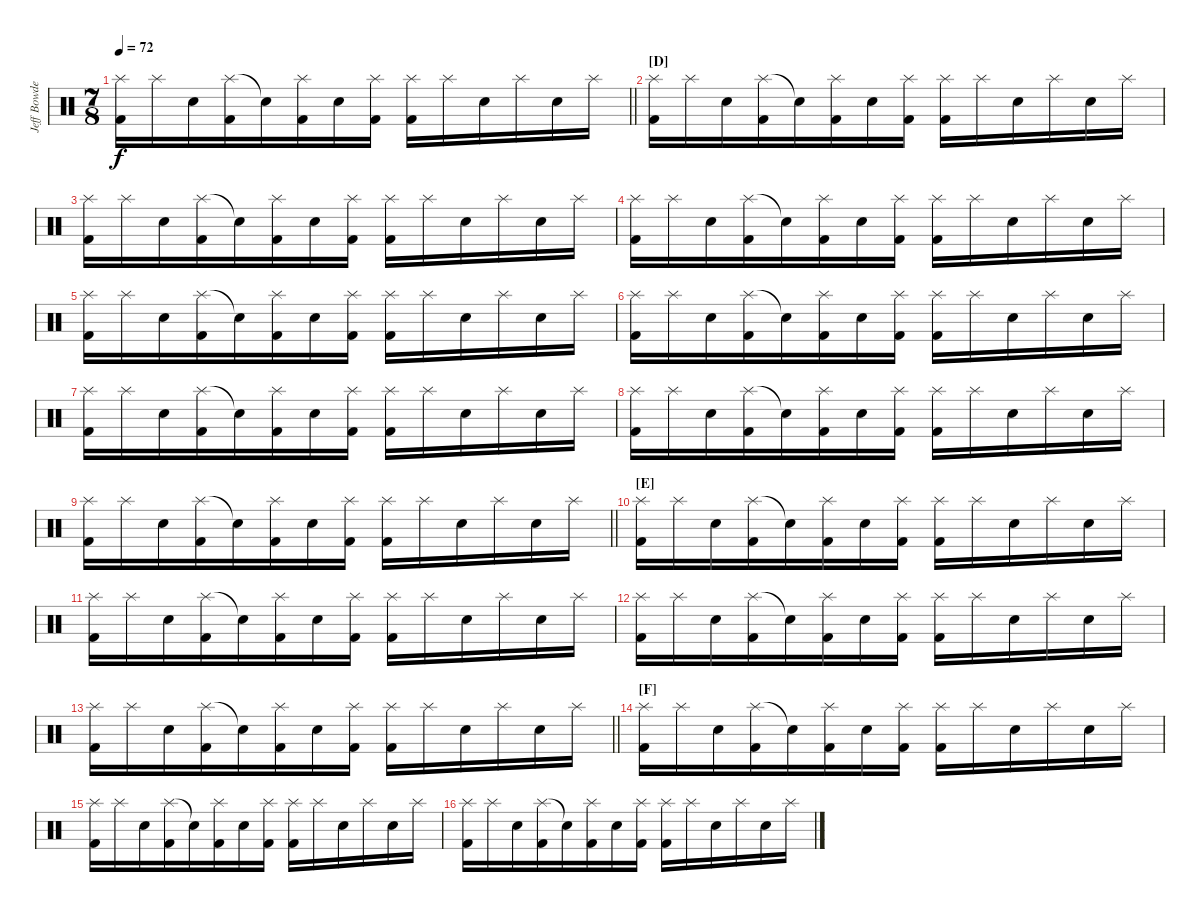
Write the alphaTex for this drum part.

\track ("Jeff Bowders" "Jeff Bowde") {instrument percussion}
\staff {score}
\articulation defaults
\ts (7 8)
\tempo 72
\clef neutral
\barLineRight lightlight
\ks aminor
("Splash (hit)" "Kick (hit) 2").16{dy f} "Splash (hit)".16 "Electric Snare (hit)".16 ("Splash (hit)" "Kick (hit) 2").16 "Snare (hit)"{t}.16 ("Splash (hit)" "Kick (hit) 2").16 "Electric Snare (hit)".16 ("Splash (hit)" "Kick (hit) 2").16 ("Splash (hit)" "Kick (hit) 2").16 "Splash (hit)".16 "Electric Snare (hit)".16 "Splash (hit)".16 "Electric Snare (hit)".16 "Splash (hit)".16 |
\section ("" "[D]")
("Splash (hit)" "Kick (hit) 2").16 "Splash (hit)".16 "Electric Snare (hit)".16 ("Splash (hit)" "Kick (hit) 2").16 "Snare (hit)"{t}.16 ("Splash (hit)" "Kick (hit) 2").16 "Electric Snare (hit)".16 ("Splash (hit)" "Kick (hit) 2").16 ("Splash (hit)" "Kick (hit) 2").16 "Splash (hit)".16 "Electric Snare (hit)".16 "Splash (hit)".16 "Electric Snare (hit)".16 "Splash (hit)".16 |
("Splash (hit)" "Kick (hit) 2").16 "Splash (hit)".16 "Electric Snare (hit)".16 ("Splash (hit)" "Kick (hit) 2").16 "Snare (hit)"{t}.16 ("Splash (hit)" "Kick (hit) 2").16 "Electric Snare (hit)".16 ("Splash (hit)" "Kick (hit) 2").16 ("Splash (hit)" "Kick (hit) 2").16 "Splash (hit)".16 "Electric Snare (hit)".16 "Splash (hit)".16 "Electric Snare (hit)".16 "Splash (hit)".16 |
("Splash (hit)" "Kick (hit) 2").16 "Splash (hit)".16 "Electric Snare (hit)".16 ("Splash (hit)" "Kick (hit) 2").16 "Snare (hit)"{t}.16 ("Splash (hit)" "Kick (hit) 2").16 "Electric Snare (hit)".16 ("Splash (hit)" "Kick (hit) 2").16 ("Splash (hit)" "Kick (hit) 2").16 "Splash (hit)".16 "Electric Snare (hit)".16 "Splash (hit)".16 "Electric Snare (hit)".16 "Splash (hit)".16 |
("Splash (hit)" "Kick (hit) 2").16 "Splash (hit)".16 "Electric Snare (hit)".16 ("Splash (hit)" "Kick (hit) 2").16 "Snare (hit)"{t}.16 ("Splash (hit)" "Kick (hit) 2").16 "Electric Snare (hit)".16 ("Splash (hit)" "Kick (hit) 2").16 ("Splash (hit)" "Kick (hit) 2").16 "Splash (hit)".16 "Electric Snare (hit)".16 "Splash (hit)".16 "Electric Snare (hit)".16 "Splash (hit)".16 |
("Splash (hit)" "Kick (hit) 2").16 "Splash (hit)".16 "Electric Snare (hit)".16 ("Splash (hit)" "Kick (hit) 2").16 "Snare (hit)"{t}.16 ("Splash (hit)" "Kick (hit) 2").16 "Electric Snare (hit)".16 ("Splash (hit)" "Kick (hit) 2").16 ("Splash (hit)" "Kick (hit) 2").16 "Splash (hit)".16 "Electric Snare (hit)".16 "Splash (hit)".16 "Electric Snare (hit)".16 "Splash (hit)".16 |
("Splash (hit)" "Kick (hit) 2").16 "Splash (hit)".16 "Electric Snare (hit)".16 ("Splash (hit)" "Kick (hit) 2").16 "Snare (hit)"{t}.16 ("Splash (hit)" "Kick (hit) 2").16 "Electric Snare (hit)".16 ("Splash (hit)" "Kick (hit) 2").16 ("Splash (hit)" "Kick (hit) 2").16 "Splash (hit)".16 "Electric Snare (hit)".16 "Splash (hit)".16 "Electric Snare (hit)".16 "Splash (hit)".16 |
("Splash (hit)" "Kick (hit) 2").16 "Splash (hit)".16 "Electric Snare (hit)".16 ("Splash (hit)" "Kick (hit) 2").16 "Snare (hit)"{t}.16 ("Splash (hit)" "Kick (hit) 2").16 "Electric Snare (hit)".16 ("Splash (hit)" "Kick (hit) 2").16 ("Splash (hit)" "Kick (hit) 2").16 "Splash (hit)".16 "Electric Snare (hit)".16 "Splash (hit)".16 "Electric Snare (hit)".16 "Splash (hit)".16 |
\barLineRight lightlight
("Splash (hit)" "Kick (hit) 2").16 "Splash (hit)".16 "Electric Snare (hit)".16 ("Splash (hit)" "Kick (hit) 2").16 "Snare (hit)"{t}.16 ("Splash (hit)" "Kick (hit) 2").16 "Electric Snare (hit)".16 ("Splash (hit)" "Kick (hit) 2").16 ("Splash (hit)" "Kick (hit) 2").16 "Splash (hit)".16 "Electric Snare (hit)".16 "Splash (hit)".16 "Electric Snare (hit)".16 "Splash (hit)".16 |
\section ("" "[E]")
("Splash (hit)" "Kick (hit) 2").16 "Splash (hit)".16 "Electric Snare (hit)".16 ("Splash (hit)" "Kick (hit) 2").16 "Snare (hit)"{t}.16 ("Splash (hit)" "Kick (hit) 2").16 "Electric Snare (hit)".16 ("Splash (hit)" "Kick (hit) 2").16 ("Splash (hit)" "Kick (hit) 2").16 "Splash (hit)".16 "Electric Snare (hit)".16 "Splash (hit)".16 "Electric Snare (hit)".16 "Splash (hit)".16 |
("Splash (hit)" "Kick (hit) 2").16 "Splash (hit)".16 "Electric Snare (hit)".16 ("Splash (hit)" "Kick (hit) 2").16 "Snare (hit)"{t}.16 ("Splash (hit)" "Kick (hit) 2").16 "Electric Snare (hit)".16 ("Splash (hit)" "Kick (hit) 2").16 ("Splash (hit)" "Kick (hit) 2").16 "Splash (hit)".16 "Electric Snare (hit)".16 "Splash (hit)".16 "Electric Snare (hit)".16 "Splash (hit)".16 |
("Splash (hit)" "Kick (hit) 2").16 "Splash (hit)".16 "Electric Snare (hit)".16 ("Splash (hit)" "Kick (hit) 2").16 "Snare (hit)"{t}.16 ("Splash (hit)" "Kick (hit) 2").16 "Electric Snare (hit)".16 ("Splash (hit)" "Kick (hit) 2").16 ("Splash (hit)" "Kick (hit) 2").16 "Splash (hit)".16 "Electric Snare (hit)".16 "Splash (hit)".16 "Electric Snare (hit)".16 "Splash (hit)".16 |
\barLineRight lightlight
("Splash (hit)" "Kick (hit) 2").16 "Splash (hit)".16 "Electric Snare (hit)".16 ("Splash (hit)" "Kick (hit) 2").16 "Snare (hit)"{t}.16 ("Splash (hit)" "Kick (hit) 2").16 "Electric Snare (hit)".16 ("Splash (hit)" "Kick (hit) 2").16 ("Splash (hit)" "Kick (hit) 2").16 "Splash (hit)".16 "Electric Snare (hit)".16 "Splash (hit)".16 "Electric Snare (hit)".16 "Splash (hit)".16 |
\section ("" "[F]")
("Splash (hit)" "Kick (hit) 2").16 "Splash (hit)".16 "Electric Snare (hit)".16 ("Splash (hit)" "Kick (hit) 2").16 "Snare (hit)"{t}.16 ("Splash (hit)" "Kick (hit) 2").16 "Electric Snare (hit)".16 ("Splash (hit)" "Kick (hit) 2").16 ("Splash (hit)" "Kick (hit) 2").16 "Splash (hit)".16 "Electric Snare (hit)".16 "Splash (hit)".16 "Electric Snare (hit)".16 "Splash (hit)".16 |
("Splash (hit)" "Kick (hit) 2").16 "Splash (hit)".16 "Electric Snare (hit)".16 ("Splash (hit)" "Kick (hit) 2").16 "Snare (hit)"{t}.16 ("Splash (hit)" "Kick (hit) 2").16 "Electric Snare (hit)".16 ("Splash (hit)" "Kick (hit) 2").16 ("Splash (hit)" "Kick (hit) 2").16 "Splash (hit)".16 "Electric Snare (hit)".16 "Splash (hit)".16 "Electric Snare (hit)".16 "Splash (hit)".16 |
("Splash (hit)" "Kick (hit) 2").16 "Splash (hit)".16 "Electric Snare (hit)".16 ("Splash (hit)" "Kick (hit) 2").16 "Snare (hit)"{t}.16 ("Splash (hit)" "Kick (hit) 2").16 "Electric Snare (hit)".16 ("Splash (hit)" "Kick (hit) 2").16 ("Splash (hit)" "Kick (hit) 2").16 "Splash (hit)".16 "Electric Snare (hit)".16 "Splash (hit)".16 "Electric Snare (hit)".16 "Splash (hit)".16
